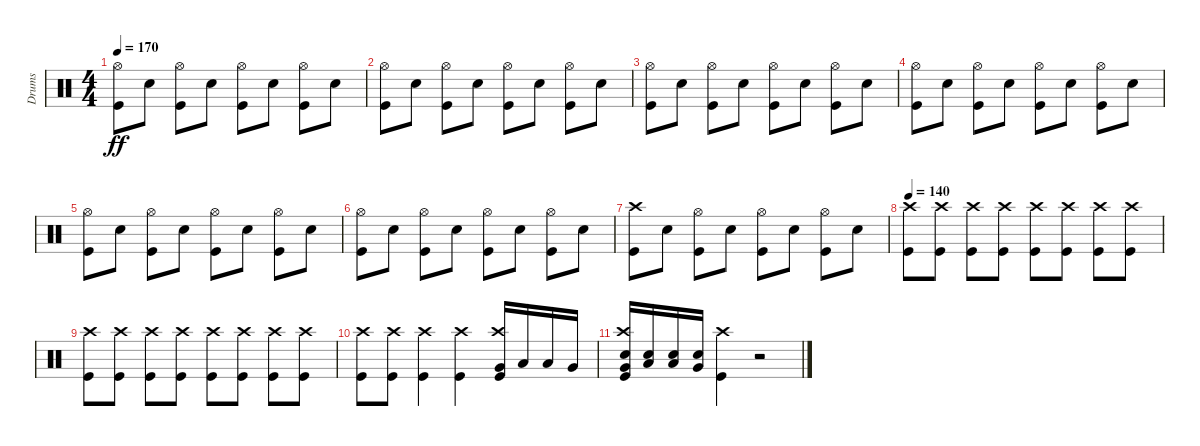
\track ("Drums" "Drums") {instrument percussion}
\staff {score}
\articulation defaults
\ts (4 4)
\tempo 170
\clef neutral
\ks c
("Hi-Hat (open)" "Kick (hit)").8{dy ff} "Snare (hit) 2".8 ("Hi-Hat (open)" "Kick (hit)").8 "Snare (hit) 2".8 ("Hi-Hat (open)" "Kick (hit)").8 "Snare (hit) 2".8 ("Hi-Hat (open)" "Kick (hit)").8 "Snare (hit) 2".8 |
("Hi-Hat (open)" "Kick (hit)").8 "Snare (hit) 2".8 ("Hi-Hat (open)" "Kick (hit)").8 "Snare (hit) 2".8 ("Hi-Hat (open)" "Kick (hit)").8 "Snare (hit) 2".8 ("Hi-Hat (open)" "Kick (hit)").8 "Snare (hit) 2".8 |
("Hi-Hat (open)" "Kick (hit)").8 "Snare (hit) 2".8 ("Hi-Hat (open)" "Kick (hit)").8 "Snare (hit) 2".8 ("Hi-Hat (open)" "Kick (hit)").8 "Snare (hit) 2".8 ("Hi-Hat (open)" "Kick (hit)").8 "Snare (hit) 2".8 |
("Hi-Hat (open)" "Kick (hit)").8 "Snare (hit) 2".8 ("Hi-Hat (open)" "Kick (hit)").8 "Snare (hit) 2".8 ("Hi-Hat (open)" "Kick (hit)").8 "Snare (hit) 2".8 ("Hi-Hat (open)" "Kick (hit)").8 "Snare (hit) 2".8 |
("Hi-Hat (open)" "Kick (hit)").8 "Snare (hit) 2".8 ("Hi-Hat (open)" "Kick (hit)").8 "Snare (hit) 2".8 ("Hi-Hat (open)" "Kick (hit)").8 "Snare (hit) 2".8 ("Hi-Hat (open)" "Kick (hit)").8 "Snare (hit) 2".8 |
("Hi-Hat (open)" "Kick (hit)").8 "Snare (hit) 2".8 ("Hi-Hat (open)" "Kick (hit)").8 "Snare (hit) 2".8 ("Hi-Hat (open)" "Kick (hit)").8 "Snare (hit) 2".8 ("Hi-Hat (open)" "Kick (hit)").8 "Snare (hit) 2".8 |
("Crash high (hit)" "Kick (hit)").8 "Snare (hit) 2".8 ("Hi-Hat (open)" "Kick (hit)").8 "Snare (hit) 2".8 ("Hi-Hat (open)" "Kick (hit)").8 "Snare (hit) 2".8 ("Hi-Hat (open)" "Kick (hit)").8 "Snare (hit) 2".8 |
\tempo 140
("Crash high (hit)" "Kick (hit)").8 ("Crash high (hit)" "Kick (hit)").8 ("Crash high (hit)" "Kick (hit)").8 ("Crash high (hit)" "Kick (hit)").8 ("Crash high (hit)" "Kick (hit)").8 ("Crash high (hit)" "Kick (hit)").8 ("Crash high (hit)" "Kick (hit)").8 ("Crash high (hit)" "Kick (hit)").8 |
("Crash high (hit)" "Kick (hit)").8 ("Crash high (hit)" "Kick (hit)").8 ("Crash high (hit)" "Kick (hit)").8 ("Crash high (hit)" "Kick (hit)").8 ("Crash high (hit)" "Kick (hit)").8 ("Crash high (hit)" "Kick (hit)").8 ("Crash high (hit)" "Kick (hit)").8 ("Crash high (hit)" "Kick (hit)").8 |
("Crash high (hit)" "Kick (hit)").8 ("Crash high (hit)" "Kick (hit)").8 ("Crash high (hit)" "Kick (hit)").4 ("Crash high (hit)" "Kick (hit)").4 ("Crash high (hit)" "Very Low Tom (hit)" "Kick (hit)").16 "Low Floor Tom (hit)".16 "Low Floor Tom (hit)".16 "Very Low Tom (hit)".16 |
("Crash high (hit)" "Snare (hit) 2" "Very Low Tom (hit)" "Kick (hit)").16 ("Snare (hit) 2" "Low Floor Tom (hit)").16 ("Snare (hit) 2" "Low Floor Tom (hit)").16 ("Snare (hit) 2" "Very Low Tom (hit)").16 ("Crash high (hit)" "Kick (hit)").4 r.2{volume 0}
